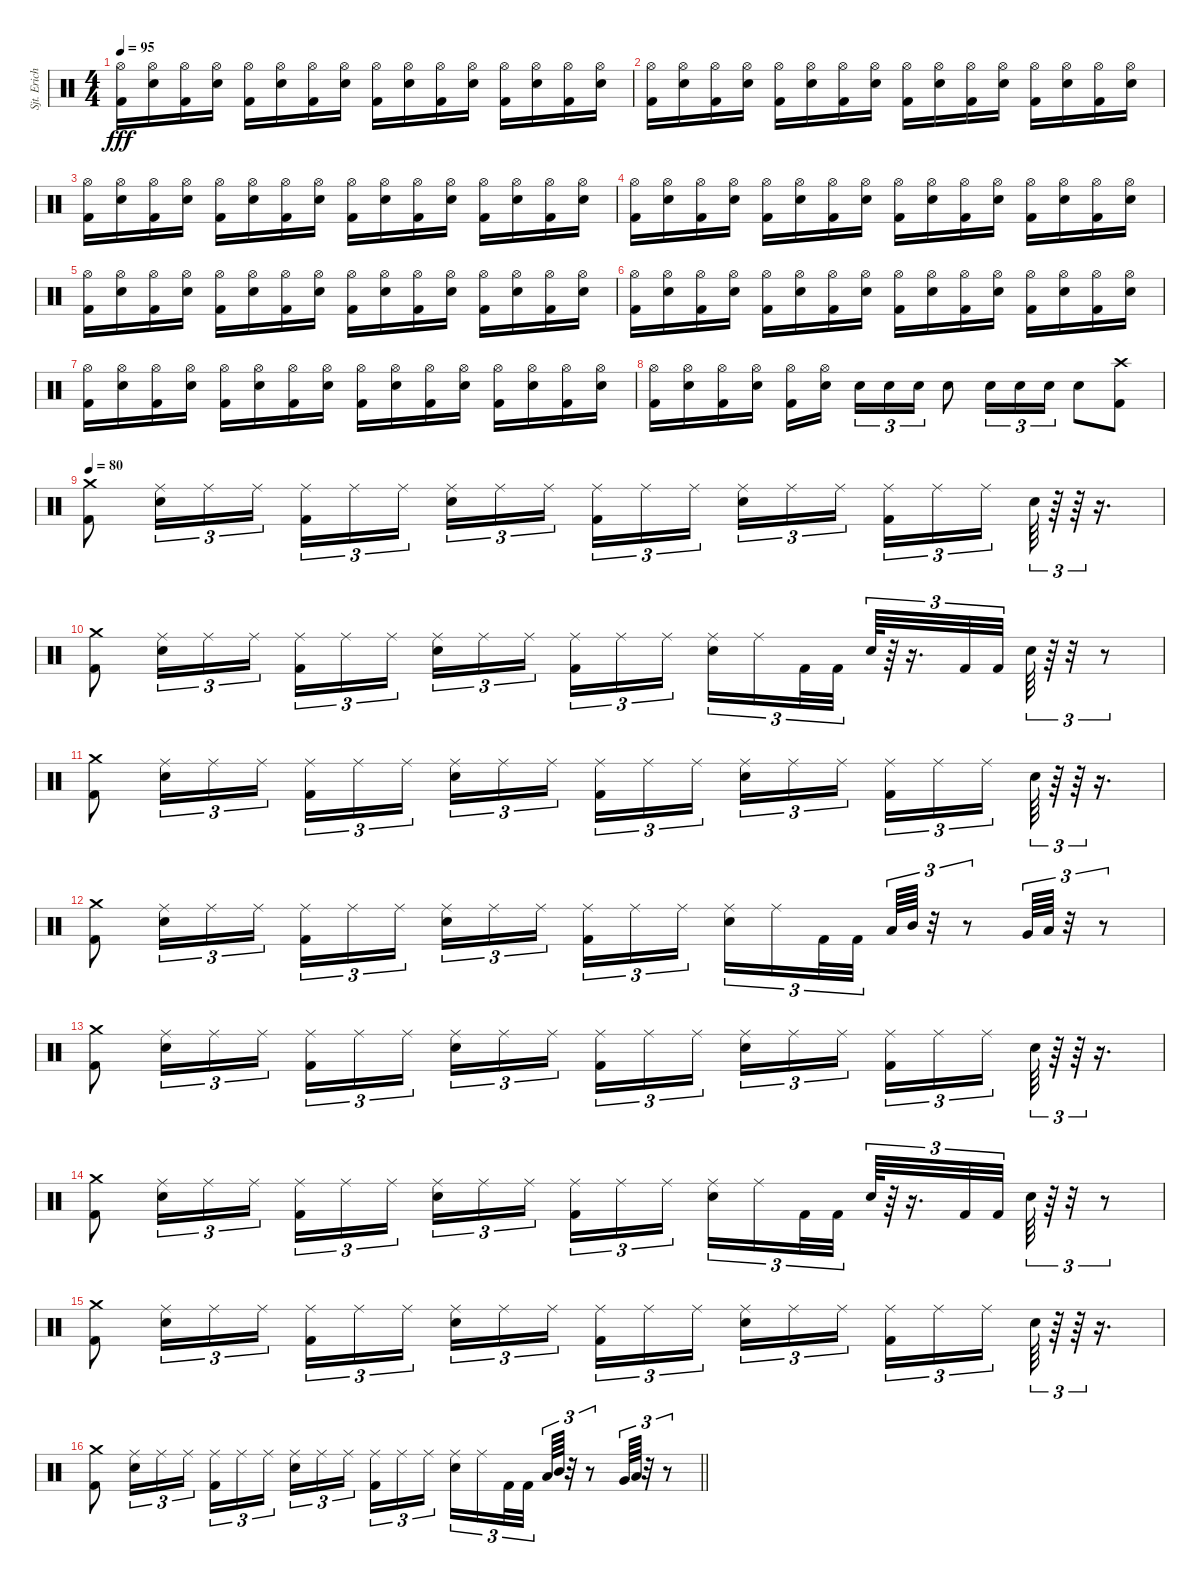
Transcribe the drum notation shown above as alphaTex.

\track ("Sjt. Erichsen" "Sjt. Erich") {instrument percussion}
\staff {score}
\articulation defaults
\ts (4 4)
\tempo 95
\clef neutral
\ks c
("Hi-Hat (open)" "Kick (hit) 2").16{dy fff} ("Hi-Hat (open)" "Electric Snare (hit)").16 ("Hi-Hat (open)" "Kick (hit) 2").16 ("Hi-Hat (open)" "Electric Snare (hit)").16 ("Hi-Hat (open)" "Kick (hit) 2").16 ("Hi-Hat (open)" "Electric Snare (hit)").16 ("Hi-Hat (open)" "Kick (hit) 2").16 ("Hi-Hat (open)" "Electric Snare (hit)").16 ("Hi-Hat (open)" "Kick (hit) 2").16 ("Hi-Hat (open)" "Electric Snare (hit)").16 ("Hi-Hat (open)" "Kick (hit) 2").16 ("Hi-Hat (open)" "Electric Snare (hit)").16 ("Hi-Hat (open)" "Kick (hit) 2").16 ("Hi-Hat (open)" "Electric Snare (hit)").16 ("Hi-Hat (open)" "Kick (hit) 2").16 ("Hi-Hat (open)" "Electric Snare (hit)").16 |
("Hi-Hat (open)" "Kick (hit) 2").16 ("Hi-Hat (open)" "Electric Snare (hit)").16 ("Hi-Hat (open)" "Kick (hit) 2").16 ("Hi-Hat (open)" "Electric Snare (hit)").16 ("Hi-Hat (open)" "Kick (hit) 2").16 ("Hi-Hat (open)" "Electric Snare (hit)").16 ("Hi-Hat (open)" "Kick (hit) 2").16 ("Hi-Hat (open)" "Electric Snare (hit)").16 ("Hi-Hat (open)" "Kick (hit) 2").16 ("Hi-Hat (open)" "Electric Snare (hit)").16 ("Hi-Hat (open)" "Kick (hit) 2").16 ("Hi-Hat (open)" "Electric Snare (hit)").16 ("Hi-Hat (open)" "Kick (hit) 2").16 ("Hi-Hat (open)" "Electric Snare (hit)").16 ("Hi-Hat (open)" "Kick (hit) 2").16 ("Hi-Hat (open)" "Electric Snare (hit)").16 |
("Hi-Hat (open)" "Kick (hit) 2").16 ("Hi-Hat (open)" "Electric Snare (hit)").16 ("Hi-Hat (open)" "Kick (hit) 2").16 ("Hi-Hat (open)" "Electric Snare (hit)").16 ("Hi-Hat (open)" "Kick (hit) 2").16 ("Hi-Hat (open)" "Electric Snare (hit)").16 ("Hi-Hat (open)" "Kick (hit) 2").16 ("Hi-Hat (open)" "Electric Snare (hit)").16 ("Hi-Hat (open)" "Kick (hit) 2").16 ("Hi-Hat (open)" "Electric Snare (hit)").16 ("Hi-Hat (open)" "Kick (hit) 2").16 ("Hi-Hat (open)" "Electric Snare (hit)").16 ("Hi-Hat (open)" "Kick (hit) 2").16 ("Hi-Hat (open)" "Electric Snare (hit)").16 ("Hi-Hat (open)" "Kick (hit) 2").16 ("Hi-Hat (open)" "Electric Snare (hit)").16 |
("Hi-Hat (open)" "Kick (hit) 2").16 ("Hi-Hat (open)" "Electric Snare (hit)").16 ("Hi-Hat (open)" "Kick (hit) 2").16 ("Hi-Hat (open)" "Electric Snare (hit)").16 ("Hi-Hat (open)" "Kick (hit) 2").16 ("Hi-Hat (open)" "Electric Snare (hit)").16 ("Hi-Hat (open)" "Kick (hit) 2").16 ("Hi-Hat (open)" "Electric Snare (hit)").16 ("Hi-Hat (open)" "Kick (hit) 2").16 ("Hi-Hat (open)" "Electric Snare (hit)").16 ("Hi-Hat (open)" "Kick (hit) 2").16 ("Hi-Hat (open)" "Electric Snare (hit)").16 ("Hi-Hat (open)" "Kick (hit) 2").16 ("Hi-Hat (open)" "Electric Snare (hit)").16 ("Hi-Hat (open)" "Kick (hit) 2").16 ("Hi-Hat (open)" "Electric Snare (hit)").16 |
("Hi-Hat (open)" "Kick (hit) 2").16 ("Hi-Hat (open)" "Electric Snare (hit)").16 ("Hi-Hat (open)" "Kick (hit) 2").16 ("Hi-Hat (open)" "Electric Snare (hit)").16 ("Hi-Hat (open)" "Kick (hit) 2").16 ("Hi-Hat (open)" "Electric Snare (hit)").16 ("Hi-Hat (open)" "Kick (hit) 2").16 ("Hi-Hat (open)" "Electric Snare (hit)").16 ("Hi-Hat (open)" "Kick (hit) 2").16 ("Hi-Hat (open)" "Electric Snare (hit)").16 ("Hi-Hat (open)" "Kick (hit) 2").16 ("Hi-Hat (open)" "Electric Snare (hit)").16 ("Hi-Hat (open)" "Kick (hit) 2").16 ("Hi-Hat (open)" "Electric Snare (hit)").16 ("Hi-Hat (open)" "Kick (hit) 2").16 ("Hi-Hat (open)" "Electric Snare (hit)").16 |
("Hi-Hat (open)" "Kick (hit) 2").16 ("Hi-Hat (open)" "Electric Snare (hit)").16 ("Hi-Hat (open)" "Kick (hit) 2").16 ("Hi-Hat (open)" "Electric Snare (hit)").16 ("Hi-Hat (open)" "Kick (hit) 2").16 ("Hi-Hat (open)" "Electric Snare (hit)").16 ("Hi-Hat (open)" "Kick (hit) 2").16 ("Hi-Hat (open)" "Electric Snare (hit)").16 ("Hi-Hat (open)" "Kick (hit) 2").16 ("Hi-Hat (open)" "Electric Snare (hit)").16 ("Hi-Hat (open)" "Kick (hit) 2").16 ("Hi-Hat (open)" "Electric Snare (hit)").16 ("Hi-Hat (open)" "Kick (hit) 2").16 ("Hi-Hat (open)" "Electric Snare (hit)").16 ("Hi-Hat (open)" "Kick (hit) 2").16 ("Hi-Hat (open)" "Electric Snare (hit)").16 |
("Hi-Hat (open)" "Kick (hit) 2").16 ("Hi-Hat (open)" "Electric Snare (hit)").16 ("Hi-Hat (open)" "Kick (hit) 2").16 ("Hi-Hat (open)" "Electric Snare (hit)").16 ("Hi-Hat (open)" "Kick (hit) 2").16 ("Hi-Hat (open)" "Electric Snare (hit)").16 ("Hi-Hat (open)" "Kick (hit) 2").16 ("Hi-Hat (open)" "Electric Snare (hit)").16 ("Hi-Hat (open)" "Kick (hit) 2").16 ("Hi-Hat (open)" "Electric Snare (hit)").16 ("Hi-Hat (open)" "Kick (hit) 2").16 ("Hi-Hat (open)" "Electric Snare (hit)").16 ("Hi-Hat (open)" "Kick (hit) 2").16 ("Hi-Hat (open)" "Electric Snare (hit)").16 ("Hi-Hat (open)" "Kick (hit) 2").16 ("Hi-Hat (open)" "Electric Snare (hit)").16 |
("Hi-Hat (open)" "Kick (hit) 2").16 ("Hi-Hat (open)" "Electric Snare (hit)").16 ("Hi-Hat (open)" "Kick (hit) 2").16 ("Hi-Hat (open)" "Electric Snare (hit)").16 ("Hi-Hat (open)" "Kick (hit) 2").16 ("Hi-Hat (open)" "Electric Snare (hit)").16{beam splitsecondary} "Electric Snare (hit)".16{tu (3 2)} "Electric Snare (hit)".16{tu (3 2)} "Electric Snare (hit)".16{tu (3 2)} "Electric Snare (hit)".8 "Electric Snare (hit)".16{tu (3 2)} "Electric Snare (hit)".16{tu (3 2)} "Electric Snare (hit)".16{tu (3 2)} "Electric Snare (hit)".8 ("Crash high (hit)" "Kick (hit) 2").8 |
\tempo 80
("Crash medium (hit)" "Kick (hit) 2").8 ("Ride (middle)" "Electric Snare (hit)").16{tu (3 2)} "Ride (middle)".16{tu (3 2)} "Ride (middle)".16{tu (3 2)} ("Ride (middle)" "Kick (hit) 2").16{tu (3 2)} "Ride (middle)".16{tu (3 2)} "Ride (middle)".16{tu (3 2) beam splitsecondary} ("Ride (middle)" "Electric Snare (hit)").16{tu (3 2)} "Ride (middle)".16{tu (3 2)} "Ride (middle)".16{tu (3 2)} ("Ride (middle)" "Kick (hit) 2").16{tu (3 2)} "Ride (middle)".16{tu (3 2)} "Ride (middle)".16{tu (3 2) beam splitsecondary} ("Ride (middle)" "Electric Snare (hit)").16{tu (3 2)} "Ride (middle)".16{tu (3 2)} "Ride (middle)".16{tu (3 2)} ("Ride (middle)" "Kick (hit) 2").16{tu (3 2)} "Ride (middle)".16{tu (3 2)} "Ride (middle)".16{tu (3 2) beam splitsecondary} "Electric Snare (hit)".64{tu (3 2)} r.64{tu (3 2)} r.64{tu (3 2)} r.16{d} |
("Crash medium (hit)" "Kick (hit) 2").8 ("Ride (middle)" "Electric Snare (hit)").16{tu (3 2)} "Ride (middle)".16{tu (3 2)} "Ride (middle)".16{tu (3 2)} ("Ride (middle)" "Kick (hit) 2").16{tu (3 2)} "Ride (middle)".16{tu (3 2)} "Ride (middle)".16{tu (3 2) beam splitsecondary} ("Ride (middle)" "Electric Snare (hit)").16{tu (3 2)} "Ride (middle)".16{tu (3 2)} "Ride (middle)".16{tu (3 2)} ("Ride (middle)" "Kick (hit) 2").16{tu (3 2)} "Ride (middle)".16{tu (3 2)} "Ride (middle)".16{tu (3 2) beam splitsecondary} ("Ride (middle)" "Electric Snare (hit)").16{tu (3 2)} "Ride (middle)".16{tu (3 2)} "Kick (hit) 2".32{tu (3 2)} "Kick (hit) 2".32{tu (3 2)} "Electric Snare (hit)".64{tu (3 2)} r.64{tu (3 2)} r.16{d tu (3 2)} "Kick (hit) 2".32{tu (3 2)} "Kick (hit) 2".32{tu (3 2)} "Electric Snare (hit)".64{tu (3 2)} r.64{tu (3 2)} r.32{tu (3 2)} r.8{tu (3 2)} |
("Crash medium (hit)" "Kick (hit) 2").8 ("Ride (middle)" "Electric Snare (hit)").16{tu (3 2)} "Ride (middle)".16{tu (3 2)} "Ride (middle)".16{tu (3 2)} ("Ride (middle)" "Kick (hit) 2").16{tu (3 2)} "Ride (middle)".16{tu (3 2)} "Ride (middle)".16{tu (3 2) beam splitsecondary} ("Ride (middle)" "Electric Snare (hit)").16{tu (3 2)} "Ride (middle)".16{tu (3 2)} "Ride (middle)".16{tu (3 2)} ("Ride (middle)" "Kick (hit) 2").16{tu (3 2)} "Ride (middle)".16{tu (3 2)} "Ride (middle)".16{tu (3 2) beam splitsecondary} ("Ride (middle)" "Electric Snare (hit)").16{tu (3 2)} "Ride (middle)".16{tu (3 2)} "Ride (middle)".16{tu (3 2)} ("Ride (middle)" "Kick (hit) 2").16{tu (3 2)} "Ride (middle)".16{tu (3 2)} "Ride (middle)".16{tu (3 2) beam splitsecondary} "Electric Snare (hit)".64{tu (3 2)} r.64{tu (3 2)} r.64{tu (3 2)} r.16{d} |
("Crash medium (hit)" "Kick (hit) 2").8 ("Ride (middle)" "Electric Snare (hit)").16{tu (3 2)} "Ride (middle)".16{tu (3 2)} "Ride (middle)".16{tu (3 2)} ("Ride (middle)" "Kick (hit) 2").16{tu (3 2)} "Ride (middle)".16{tu (3 2)} "Ride (middle)".16{tu (3 2) beam splitsecondary} ("Ride (middle)" "Electric Snare (hit)").16{tu (3 2)} "Ride (middle)".16{tu (3 2)} "Ride (middle)".16{tu (3 2)} ("Ride (middle)" "Kick (hit) 2").16{tu (3 2)} "Ride (middle)".16{tu (3 2)} "Ride (middle)".16{tu (3 2) beam splitsecondary} ("Ride (middle)" "Electric Snare (hit)").16{tu (3 2)} "Ride (middle)".16{tu (3 2)} "Kick (hit) 2".32{tu (3 2)} "Kick (hit) 2".32{tu (3 2)} "Low Tom (hit)".64{tu (3 2)} "Mid Tom (hit)".64{tu (3 2)} r.32{tu (3 2)} r.8{tu (3 2)} "Very Low Tom (hit)".64{tu (3 2)} "Low Tom (hit)".64{tu (3 2)} r.32{tu (3 2)} r.8{tu (3 2)} |
("Crash medium (hit)" "Kick (hit) 2").8 ("Ride (middle)" "Electric Snare (hit)").16{tu (3 2)} "Ride (middle)".16{tu (3 2)} "Ride (middle)".16{tu (3 2)} ("Ride (middle)" "Kick (hit) 2").16{tu (3 2)} "Ride (middle)".16{tu (3 2)} "Ride (middle)".16{tu (3 2) beam splitsecondary} ("Ride (middle)" "Electric Snare (hit)").16{tu (3 2)} "Ride (middle)".16{tu (3 2)} "Ride (middle)".16{tu (3 2)} ("Ride (middle)" "Kick (hit) 2").16{tu (3 2)} "Ride (middle)".16{tu (3 2)} "Ride (middle)".16{tu (3 2) beam splitsecondary} ("Ride (middle)" "Electric Snare (hit)").16{tu (3 2)} "Ride (middle)".16{tu (3 2)} "Ride (middle)".16{tu (3 2)} ("Ride (middle)" "Kick (hit) 2").16{tu (3 2)} "Ride (middle)".16{tu (3 2)} "Ride (middle)".16{tu (3 2) beam splitsecondary} "Electric Snare (hit)".64{tu (3 2)} r.64{tu (3 2)} r.64{tu (3 2)} r.16{d} |
("Crash medium (hit)" "Kick (hit) 2").8 ("Ride (middle)" "Electric Snare (hit)").16{tu (3 2)} "Ride (middle)".16{tu (3 2)} "Ride (middle)".16{tu (3 2)} ("Ride (middle)" "Kick (hit) 2").16{tu (3 2)} "Ride (middle)".16{tu (3 2)} "Ride (middle)".16{tu (3 2) beam splitsecondary} ("Ride (middle)" "Electric Snare (hit)").16{tu (3 2)} "Ride (middle)".16{tu (3 2)} "Ride (middle)".16{tu (3 2)} ("Ride (middle)" "Kick (hit) 2").16{tu (3 2)} "Ride (middle)".16{tu (3 2)} "Ride (middle)".16{tu (3 2) beam splitsecondary} ("Ride (middle)" "Electric Snare (hit)").16{tu (3 2)} "Ride (middle)".16{tu (3 2)} "Kick (hit) 2".32{tu (3 2)} "Kick (hit) 2".32{tu (3 2)} "Electric Snare (hit)".64{tu (3 2)} r.64{tu (3 2)} r.16{d tu (3 2)} "Kick (hit) 2".32{tu (3 2)} "Kick (hit) 2".32{tu (3 2)} "Electric Snare (hit)".64{tu (3 2)} r.64{tu (3 2)} r.32{tu (3 2)} r.8{tu (3 2)} |
("Crash medium (hit)" "Kick (hit) 2").8 ("Ride (middle)" "Electric Snare (hit)").16{tu (3 2)} "Ride (middle)".16{tu (3 2)} "Ride (middle)".16{tu (3 2)} ("Ride (middle)" "Kick (hit) 2").16{tu (3 2)} "Ride (middle)".16{tu (3 2)} "Ride (middle)".16{tu (3 2) beam splitsecondary} ("Ride (middle)" "Electric Snare (hit)").16{tu (3 2)} "Ride (middle)".16{tu (3 2)} "Ride (middle)".16{tu (3 2)} ("Ride (middle)" "Kick (hit) 2").16{tu (3 2)} "Ride (middle)".16{tu (3 2)} "Ride (middle)".16{tu (3 2) beam splitsecondary} ("Ride (middle)" "Electric Snare (hit)").16{tu (3 2)} "Ride (middle)".16{tu (3 2)} "Ride (middle)".16{tu (3 2)} ("Ride (middle)" "Kick (hit) 2").16{tu (3 2)} "Ride (middle)".16{tu (3 2)} "Ride (middle)".16{tu (3 2) beam splitsecondary} "Electric Snare (hit)".64{tu (3 2)} r.64{tu (3 2)} r.64{tu (3 2)} r.16{d} |
\barLineRight lightlight
("Crash medium (hit)" "Kick (hit) 2").8 ("Ride (middle)" "Electric Snare (hit)").16{tu (3 2)} "Ride (middle)".16{tu (3 2)} "Ride (middle)".16{tu (3 2)} ("Ride (middle)" "Kick (hit) 2").16{tu (3 2)} "Ride (middle)".16{tu (3 2)} "Ride (middle)".16{tu (3 2) beam splitsecondary} ("Ride (middle)" "Electric Snare (hit)").16{tu (3 2)} "Ride (middle)".16{tu (3 2)} "Ride (middle)".16{tu (3 2)} ("Ride (middle)" "Kick (hit) 2").16{tu (3 2)} "Ride (middle)".16{tu (3 2)} "Ride (middle)".16{tu (3 2) beam splitsecondary} ("Ride (middle)" "Electric Snare (hit)").16{tu (3 2)} "Ride (middle)".16{tu (3 2)} "Kick (hit) 2".32{tu (3 2)} "Kick (hit) 2".32{tu (3 2)} "Low Tom (hit)".64{tu (3 2)} "Mid Tom (hit)".64{tu (3 2)} r.32{tu (3 2)} r.8{tu (3 2)} "Very Low Tom (hit)".64{tu (3 2)} "Low Tom (hit)".64{tu (3 2)} r.32{tu (3 2)} r.8{tu (3 2)}
